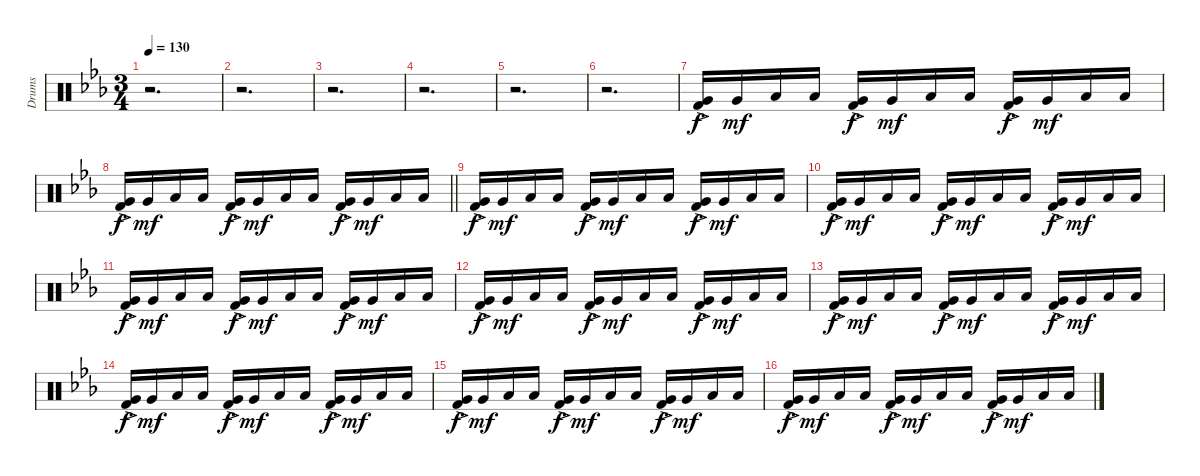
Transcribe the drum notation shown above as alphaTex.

\track ("Drums" "Drums") {instrument percussion}
\staff {score}
\articulation defaults
\ts (3 4)
\tempo 130
\clef neutral
\ks eb
r.2{d dy f} |
r.2{d} |
r.2{d} |
r.2{d} |
r.2{d} |
r.2{d} |
("Very Low Tom (hit)"{ac} "Kick (hit) 2"{ac}).16 "Very Low Tom (hit)".16{dy mf} "Low Floor Tom (hit)".16 "Low Floor Tom (hit)".16 ("Very Low Tom (hit)"{ac} "Kick (hit) 2"{ac}).16{dy f} "Very Low Tom (hit)".16{dy mf} "Low Floor Tom (hit)".16 "Low Floor Tom (hit)".16 ("Very Low Tom (hit)"{ac} "Kick (hit) 2"{ac}).16{dy f} "Very Low Tom (hit)".16{dy mf} "Low Floor Tom (hit)".16 "Low Floor Tom (hit)".16 |
\barLineRight lightlight
("Very Low Tom (hit)"{ac} "Kick (hit) 2"{ac}).16{dy f} "Very Low Tom (hit)".16{dy mf} "Low Floor Tom (hit)".16 "Low Floor Tom (hit)".16 ("Very Low Tom (hit)"{ac} "Kick (hit) 2"{ac}).16{dy f} "Very Low Tom (hit)".16{dy mf} "Low Floor Tom (hit)".16 "Low Floor Tom (hit)".16 ("Very Low Tom (hit)"{ac} "Kick (hit) 2"{ac}).16{dy f} "Very Low Tom (hit)".16{dy mf} "Low Floor Tom (hit)".16 "Low Floor Tom (hit)".16 |
\section ("" "")
("Very Low Tom (hit)"{ac} "Kick (hit) 2"{ac}).16{dy f} "Very Low Tom (hit)".16{dy mf} "Low Floor Tom (hit)".16 "Low Floor Tom (hit)".16 ("Very Low Tom (hit)"{ac} "Kick (hit) 2"{ac}).16{dy f} "Very Low Tom (hit)".16{dy mf} "Low Floor Tom (hit)".16 "Low Floor Tom (hit)".16 ("Very Low Tom (hit)"{ac} "Kick (hit) 2"{ac}).16{dy f} "Very Low Tom (hit)".16{dy mf} "Low Floor Tom (hit)".16 "Low Floor Tom (hit)".16 |
("Very Low Tom (hit)"{ac} "Kick (hit) 2"{ac}).16{dy f} "Very Low Tom (hit)".16{dy mf} "Low Floor Tom (hit)".16 "Low Floor Tom (hit)".16 ("Very Low Tom (hit)"{ac} "Kick (hit) 2"{ac}).16{dy f} "Very Low Tom (hit)".16{dy mf} "Low Floor Tom (hit)".16 "Low Floor Tom (hit)".16 ("Very Low Tom (hit)"{ac} "Kick (hit) 2"{ac}).16{dy f} "Very Low Tom (hit)".16{dy mf} "Low Floor Tom (hit)".16 "Low Floor Tom (hit)".16 |
("Very Low Tom (hit)"{ac} "Kick (hit) 2"{ac}).16{dy f} "Very Low Tom (hit)".16{dy mf} "Low Floor Tom (hit)".16 "Low Floor Tom (hit)".16 ("Very Low Tom (hit)"{ac} "Kick (hit) 2"{ac}).16{dy f} "Very Low Tom (hit)".16{dy mf} "Low Floor Tom (hit)".16 "Low Floor Tom (hit)".16 ("Very Low Tom (hit)"{ac} "Kick (hit) 2"{ac}).16{dy f} "Very Low Tom (hit)".16{dy mf} "Low Floor Tom (hit)".16 "Low Floor Tom (hit)".16 |
("Very Low Tom (hit)"{ac} "Kick (hit) 2"{ac}).16{dy f} "Very Low Tom (hit)".16{dy mf} "Low Floor Tom (hit)".16 "Low Floor Tom (hit)".16 ("Very Low Tom (hit)"{ac} "Kick (hit) 2"{ac}).16{dy f} "Very Low Tom (hit)".16{dy mf} "Low Floor Tom (hit)".16 "Low Floor Tom (hit)".16 ("Very Low Tom (hit)"{ac} "Kick (hit) 2"{ac}).16{dy f} "Very Low Tom (hit)".16{dy mf} "Low Floor Tom (hit)".16 "Low Floor Tom (hit)".16 |
("Very Low Tom (hit)"{ac} "Kick (hit) 2"{ac}).16{dy f} "Very Low Tom (hit)".16{dy mf} "Low Floor Tom (hit)".16 "Low Floor Tom (hit)".16 ("Very Low Tom (hit)"{ac} "Kick (hit) 2"{ac}).16{dy f} "Very Low Tom (hit)".16{dy mf} "Low Floor Tom (hit)".16 "Low Floor Tom (hit)".16 ("Very Low Tom (hit)"{ac} "Kick (hit) 2"{ac}).16{dy f} "Very Low Tom (hit)".16{dy mf} "Low Floor Tom (hit)".16 "Low Floor Tom (hit)".16 |
("Very Low Tom (hit)"{ac} "Kick (hit) 2"{ac}).16{dy f} "Very Low Tom (hit)".16{dy mf} "Low Floor Tom (hit)".16 "Low Floor Tom (hit)".16 ("Very Low Tom (hit)"{ac} "Kick (hit) 2"{ac}).16{dy f} "Very Low Tom (hit)".16{dy mf} "Low Floor Tom (hit)".16 "Low Floor Tom (hit)".16 ("Very Low Tom (hit)"{ac} "Kick (hit) 2"{ac}).16{dy f} "Very Low Tom (hit)".16{dy mf} "Low Floor Tom (hit)".16 "Low Floor Tom (hit)".16 |
("Very Low Tom (hit)"{ac} "Kick (hit) 2"{ac}).16{dy f} "Very Low Tom (hit)".16{dy mf} "Low Floor Tom (hit)".16 "Low Floor Tom (hit)".16 ("Very Low Tom (hit)"{ac} "Kick (hit) 2"{ac}).16{dy f} "Very Low Tom (hit)".16{dy mf} "Low Floor Tom (hit)".16 "Low Floor Tom (hit)".16 ("Very Low Tom (hit)"{ac} "Kick (hit) 2"{ac}).16{dy f} "Very Low Tom (hit)".16{dy mf} "Low Floor Tom (hit)".16 "Low Floor Tom (hit)".16 |
("Very Low Tom (hit)"{ac} "Kick (hit) 2"{ac}).16{dy f} "Very Low Tom (hit)".16{dy mf} "Low Floor Tom (hit)".16 "Low Floor Tom (hit)".16 ("Very Low Tom (hit)"{ac} "Kick (hit) 2"{ac}).16{dy f} "Very Low Tom (hit)".16{dy mf} "Low Floor Tom (hit)".16 "Low Floor Tom (hit)".16 ("Very Low Tom (hit)"{ac} "Kick (hit) 2"{ac}).16{dy f} "Very Low Tom (hit)".16{dy mf} "Low Floor Tom (hit)".16 "Low Floor Tom (hit)".16
